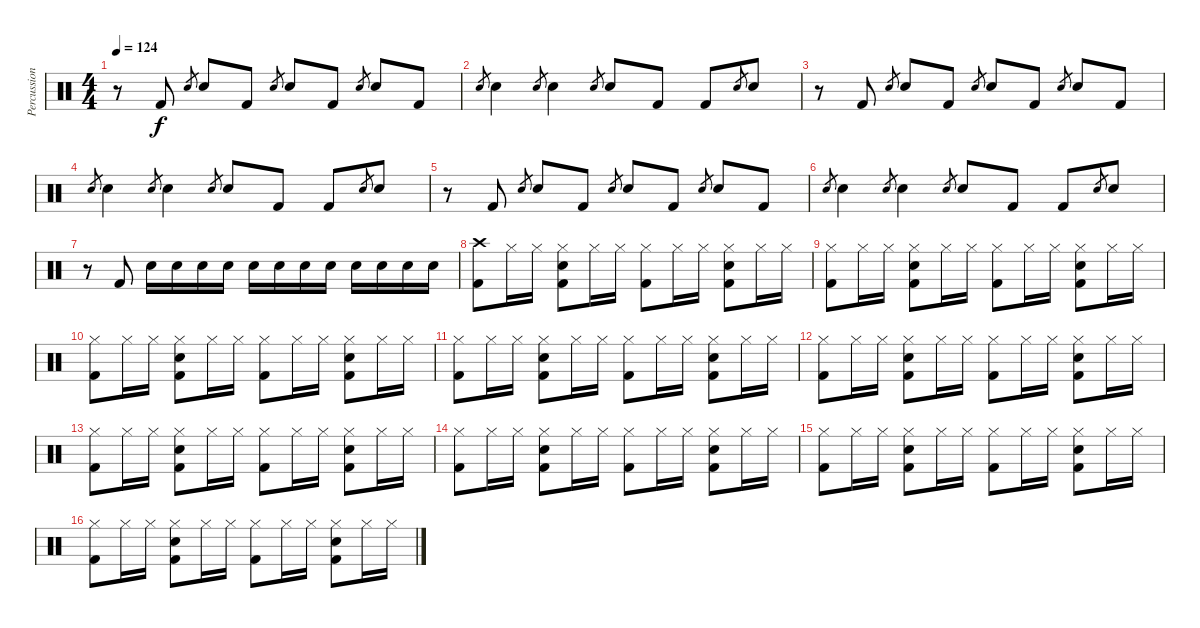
\track ("Percussion" "Percussion") {instrument percussion}
\staff {score}
\articulation defaults
\ts (4 4)
\tempo 124
\clef neutral
\ks c
r.8{dy f} "Kick (hit) 2".8 "Snare (hit) 2".8{gr} "Snare (hit) 2".8 "Kick (hit) 2".8 "Snare (hit) 2".8{gr} "Snare (hit) 2".8 "Kick (hit) 2".8 "Snare (hit) 2".8{gr} "Snare (hit) 2".8 "Kick (hit) 2".8 |
"Snare (hit) 2".8{gr} "Snare (hit) 2".4 "Snare (hit) 2".8{gr} "Snare (hit) 2".4 "Snare (hit) 2".8{gr} "Snare (hit) 2".8 "Kick (hit) 2".8 "Kick (hit) 2".8 "Snare (hit) 2".8{gr} "Snare (hit) 2".8 |
r.8 "Kick (hit) 2".8 "Snare (hit) 2".8{gr} "Snare (hit) 2".8 "Kick (hit) 2".8 "Snare (hit) 2".8{gr} "Snare (hit) 2".8 "Kick (hit) 2".8 "Snare (hit) 2".8{gr} "Snare (hit) 2".8 "Kick (hit) 2".8 |
"Snare (hit) 2".8{gr} "Snare (hit) 2".4 "Snare (hit) 2".8{gr} "Snare (hit) 2".4 "Snare (hit) 2".8{gr} "Snare (hit) 2".8 "Kick (hit) 2".8 "Kick (hit) 2".8 "Snare (hit) 2".8{gr} "Snare (hit) 2".8 |
r.8 "Kick (hit) 2".8 "Snare (hit) 2".8{gr} "Snare (hit) 2".8 "Kick (hit) 2".8 "Snare (hit) 2".8{gr} "Snare (hit) 2".8 "Kick (hit) 2".8 "Snare (hit) 2".8{gr} "Snare (hit) 2".8 "Kick (hit) 2".8 |
"Snare (hit) 2".8{gr} "Snare (hit) 2".4 "Snare (hit) 2".8{gr} "Snare (hit) 2".4 "Snare (hit) 2".8{gr} "Snare (hit) 2".8 "Kick (hit) 2".8 "Kick (hit) 2".8 "Snare (hit) 2".8{gr} "Snare (hit) 2".8 |
r.8 "Kick (hit) 2".8{volume 4} "Snare (hit) 2".16{volume 13} "Snare (hit) 2".16 "Snare (hit) 2".16 "Snare (hit) 2".16 "Snare (hit) 2".16 "Snare (hit) 2".16 "Snare (hit) 2".16 "Snare (hit) 2".16 "Snare (hit) 2".16 "Snare (hit) 2".16 "Snare (hit) 2".16 "Snare (hit) 2".16 |
("Crash high (hit)" "Kick (hit) 2").8 "Hi-Hat (closed)".16 "Hi-Hat (closed)".16 ("Hi-Hat (closed)" "Snare (hit) 2" "Kick (hit) 2").8 "Hi-Hat (closed)".16 "Hi-Hat (closed)".16 ("Hi-Hat (closed)" "Kick (hit) 2").8 "Hi-Hat (closed)".16 "Hi-Hat (closed)".16 ("Hi-Hat (closed)" "Snare (hit) 2" "Kick (hit) 2").8 "Hi-Hat (closed)".16 "Hi-Hat (closed)".16 |
("Hi-Hat (closed)" "Kick (hit) 2").8 "Hi-Hat (closed)".16 "Hi-Hat (closed)".16 ("Hi-Hat (closed)" "Snare (hit) 2" "Kick (hit) 2").8 "Hi-Hat (closed)".16 "Hi-Hat (closed)".16 ("Hi-Hat (closed)" "Kick (hit) 2").8 "Hi-Hat (closed)".16 "Hi-Hat (closed)".16 ("Hi-Hat (closed)" "Snare (hit) 2" "Kick (hit) 2").8 "Hi-Hat (closed)".16 "Hi-Hat (closed)".16 |
("Hi-Hat (closed)" "Kick (hit) 2").8 "Hi-Hat (closed)".16 "Hi-Hat (closed)".16 ("Hi-Hat (closed)" "Snare (hit) 2" "Kick (hit) 2").8 "Hi-Hat (closed)".16 "Hi-Hat (closed)".16 ("Hi-Hat (closed)" "Kick (hit) 2").8 "Hi-Hat (closed)".16 "Hi-Hat (closed)".16 ("Hi-Hat (closed)" "Snare (hit) 2" "Kick (hit) 2").8 "Hi-Hat (closed)".16 "Hi-Hat (closed)".16 |
("Hi-Hat (closed)" "Kick (hit) 2").8 "Hi-Hat (closed)".16 "Hi-Hat (closed)".16 ("Hi-Hat (closed)" "Snare (hit) 2" "Kick (hit) 2").8 "Hi-Hat (closed)".16 "Hi-Hat (closed)".16 ("Hi-Hat (closed)" "Kick (hit) 2").8 "Hi-Hat (closed)".16 "Hi-Hat (closed)".16 ("Hi-Hat (closed)" "Snare (hit) 2" "Kick (hit) 2").8 "Hi-Hat (closed)".16 "Hi-Hat (closed)".16 |
("Hi-Hat (closed)" "Kick (hit) 2").8 "Hi-Hat (closed)".16 "Hi-Hat (closed)".16 ("Hi-Hat (closed)" "Snare (hit) 2" "Kick (hit) 2").8 "Hi-Hat (closed)".16 "Hi-Hat (closed)".16 ("Hi-Hat (closed)" "Kick (hit) 2").8 "Hi-Hat (closed)".16 "Hi-Hat (closed)".16 ("Hi-Hat (closed)" "Snare (hit) 2" "Kick (hit) 2").8 "Hi-Hat (closed)".16 "Hi-Hat (closed)".16 |
("Hi-Hat (closed)" "Kick (hit) 2").8 "Hi-Hat (closed)".16 "Hi-Hat (closed)".16 ("Hi-Hat (closed)" "Snare (hit) 2" "Kick (hit) 2").8 "Hi-Hat (closed)".16 "Hi-Hat (closed)".16 ("Hi-Hat (closed)" "Kick (hit) 2").8 "Hi-Hat (closed)".16 "Hi-Hat (closed)".16 ("Hi-Hat (closed)" "Snare (hit) 2" "Kick (hit) 2").8 "Hi-Hat (closed)".16 "Hi-Hat (closed)".16 |
("Hi-Hat (closed)" "Kick (hit) 2").8 "Hi-Hat (closed)".16 "Hi-Hat (closed)".16 ("Hi-Hat (closed)" "Snare (hit) 2" "Kick (hit) 2").8 "Hi-Hat (closed)".16 "Hi-Hat (closed)".16 ("Hi-Hat (closed)" "Kick (hit) 2").8 "Hi-Hat (closed)".16 "Hi-Hat (closed)".16 ("Hi-Hat (closed)" "Snare (hit) 2" "Kick (hit) 2").8 "Hi-Hat (closed)".16 "Hi-Hat (closed)".16 |
("Hi-Hat (closed)" "Kick (hit) 2").8 "Hi-Hat (closed)".16 "Hi-Hat (closed)".16 ("Hi-Hat (closed)" "Snare (hit) 2" "Kick (hit) 2").8 "Hi-Hat (closed)".16 "Hi-Hat (closed)".16 ("Hi-Hat (closed)" "Kick (hit) 2").8 "Hi-Hat (closed)".16 "Hi-Hat (closed)".16 ("Hi-Hat (closed)" "Snare (hit) 2" "Kick (hit) 2").8 "Hi-Hat (closed)".16 "Hi-Hat (closed)".16 |
("Hi-Hat (closed)" "Kick (hit) 2").8 "Hi-Hat (closed)".16 "Hi-Hat (closed)".16 ("Hi-Hat (closed)" "Snare (hit) 2" "Kick (hit) 2").8 "Hi-Hat (closed)".16 "Hi-Hat (closed)".16 ("Hi-Hat (closed)" "Kick (hit) 2").8 "Hi-Hat (closed)".16 "Hi-Hat (closed)".16 ("Hi-Hat (closed)" "Snare (hit) 2" "Kick (hit) 2").8 "Hi-Hat (closed)".16 "Hi-Hat (closed)".16
